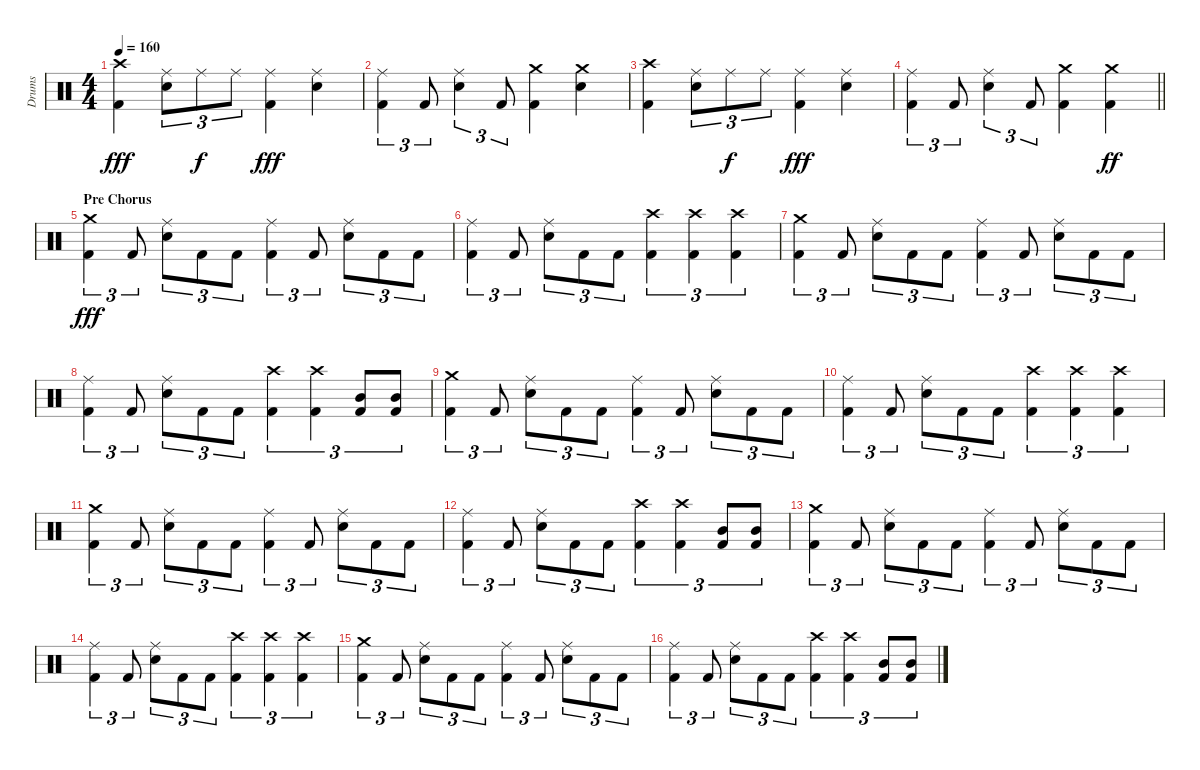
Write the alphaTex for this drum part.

\track ("Drums" "Drums") {instrument percussion}
\staff {score}
\articulation defaults
\ts (4 4)
\tempo 160
\clef neutral
\ks c
("Crash high (hit)" "Kick (hit) 2").4{dy fff} ("Ride (middle)" "Snare (hit) 2").8{tu (3 2)} "Ride (middle)".8{tu (3 2) dy f} "Ride (middle)".8{tu (3 2)} ("Ride (middle)" "Kick (hit) 2").4{dy fff} ("Ride (middle)" "Snare (hit) 2").4 |
("Ride (middle)" "Kick (hit) 2").4{tu (3 2)} "Kick (hit) 2".8{tu (3 2)} ("Ride (middle)" "Snare (hit) 2").4{tu (3 2)} "Kick (hit) 2".8{tu (3 2)} ("Crash medium (hit)" "Kick (hit) 2").4 ("Crash medium (hit)" "Snare (hit) 2").4 |
("Crash high (hit)" "Kick (hit) 2").4 ("Ride (middle)" "Snare (hit) 2").8{tu (3 2)} "Ride (middle)".8{tu (3 2) dy f} "Ride (middle)".8{tu (3 2)} ("Ride (middle)" "Kick (hit) 2").4{dy fff} ("Ride (middle)" "Snare (hit) 2").4 |
\barLineRight lightlight
("Ride (middle)" "Kick (hit) 2").4{tu (3 2)} "Kick (hit) 2".8{tu (3 2)} ("Ride (middle)" "Snare (hit) 2").4{tu (3 2)} "Kick (hit) 2".8{tu (3 2)} ("Crash medium (hit)" "Kick (hit) 2").4 ("Crash medium (hit)" "Kick (hit) 2").4{dy ff} |
\section ("" "Pre Chorus")
("Crash medium (hit)" "Kick (hit) 2").4{tu (3 2) dy fff} "Kick (hit) 2".8{tu (3 2)} ("Ride (middle)" "Snare (hit) 2").8{tu (3 2)} "Kick (hit) 2".8{tu (3 2)} "Kick (hit) 2".8{tu (3 2)} ("Ride (middle)" "Kick (hit) 2").4{tu (3 2)} "Kick (hit) 2".8{tu (3 2)} ("Ride (middle)" "Snare (hit) 2").8{tu (3 2)} "Kick (hit) 2".8{tu (3 2)} "Kick (hit) 2".8{tu (3 2)} |
("Ride (middle)" "Kick (hit) 2").4{tu (3 2)} "Kick (hit) 2".8{tu (3 2)} ("Ride (middle)" "Snare (hit) 2").8{tu (3 2)} "Kick (hit) 2".8{tu (3 2)} "Kick (hit) 2".8{tu (3 2)} ("Crash high (hit)" "Kick (hit) 2").4{tu (3 2)} ("Crash high (hit)" "Kick (hit) 2").4{tu (3 2)} ("Crash high (hit)" "Kick (hit) 2").4{tu (3 2)} |
("Crash medium (hit)" "Kick (hit) 2").4{tu (3 2)} "Kick (hit) 2".8{tu (3 2)} ("Ride (middle)" "Snare (hit) 2").8{tu (3 2)} "Kick (hit) 2".8{tu (3 2)} "Kick (hit) 2".8{tu (3 2)} ("Ride (middle)" "Kick (hit) 2").4{tu (3 2)} "Kick (hit) 2".8{tu (3 2)} ("Ride (middle)" "Snare (hit) 2").8{tu (3 2)} "Kick (hit) 2".8{tu (3 2)} "Kick (hit) 2".8{tu (3 2)} |
("Ride (middle)" "Kick (hit) 2").4{tu (3 2)} "Kick (hit) 2".8{tu (3 2)} ("Ride (middle)" "Snare (hit) 2").8{tu (3 2)} "Kick (hit) 2".8{tu (3 2)} "Kick (hit) 2".8{tu (3 2)} ("Crash high (hit)" "Kick (hit) 2").4{tu (3 2)} ("Crash high (hit)" "Kick (hit) 2").4{tu (3 2)} ("Mid Tom (hit)" "Kick (hit) 2").8{tu (3 2)} ("Mid Tom (hit)" "Kick (hit) 2").8{tu (3 2)} |
("Crash medium (hit)" "Kick (hit) 2").4{tu (3 2)} "Kick (hit) 2".8{tu (3 2)} ("Ride (middle)" "Snare (hit) 2").8{tu (3 2)} "Kick (hit) 2".8{tu (3 2)} "Kick (hit) 2".8{tu (3 2)} ("Ride (middle)" "Kick (hit) 2").4{tu (3 2)} "Kick (hit) 2".8{tu (3 2)} ("Ride (middle)" "Snare (hit) 2").8{tu (3 2)} "Kick (hit) 2".8{tu (3 2)} "Kick (hit) 2".8{tu (3 2)} |
("Ride (middle)" "Kick (hit) 2").4{tu (3 2)} "Kick (hit) 2".8{tu (3 2)} ("Ride (middle)" "Snare (hit) 2").8{tu (3 2)} "Kick (hit) 2".8{tu (3 2)} "Kick (hit) 2".8{tu (3 2)} ("Crash high (hit)" "Kick (hit) 2").4{tu (3 2)} ("Crash high (hit)" "Kick (hit) 2").4{tu (3 2)} ("Crash high (hit)" "Kick (hit) 2").4{tu (3 2)} |
("Crash medium (hit)" "Kick (hit) 2").4{tu (3 2)} "Kick (hit) 2".8{tu (3 2)} ("Ride (middle)" "Snare (hit) 2").8{tu (3 2)} "Kick (hit) 2".8{tu (3 2)} "Kick (hit) 2".8{tu (3 2)} ("Ride (middle)" "Kick (hit) 2").4{tu (3 2)} "Kick (hit) 2".8{tu (3 2)} ("Ride (middle)" "Snare (hit) 2").8{tu (3 2)} "Kick (hit) 2".8{tu (3 2)} "Kick (hit) 2".8{tu (3 2)} |
("Ride (middle)" "Kick (hit) 2").4{tu (3 2)} "Kick (hit) 2".8{tu (3 2)} ("Ride (middle)" "Snare (hit) 2").8{tu (3 2)} "Kick (hit) 2".8{tu (3 2)} "Kick (hit) 2".8{tu (3 2)} ("Crash high (hit)" "Kick (hit) 2").4{tu (3 2)} ("Crash high (hit)" "Kick (hit) 2").4{tu (3 2)} ("Mid Tom (hit)" "Kick (hit) 2").8{tu (3 2)} ("Mid Tom (hit)" "Kick (hit) 2").8{tu (3 2)} |
("Crash medium (hit)" "Kick (hit) 2").4{tu (3 2)} "Kick (hit) 2".8{tu (3 2)} ("Ride (middle)" "Snare (hit) 2").8{tu (3 2)} "Kick (hit) 2".8{tu (3 2)} "Kick (hit) 2".8{tu (3 2)} ("Ride (middle)" "Kick (hit) 2").4{tu (3 2)} "Kick (hit) 2".8{tu (3 2)} ("Ride (middle)" "Snare (hit) 2").8{tu (3 2)} "Kick (hit) 2".8{tu (3 2)} "Kick (hit) 2".8{tu (3 2)} |
("Ride (middle)" "Kick (hit) 2").4{tu (3 2)} "Kick (hit) 2".8{tu (3 2)} ("Ride (middle)" "Snare (hit) 2").8{tu (3 2)} "Kick (hit) 2".8{tu (3 2)} "Kick (hit) 2".8{tu (3 2)} ("Crash high (hit)" "Kick (hit) 2").4{tu (3 2)} ("Crash high (hit)" "Kick (hit) 2").4{tu (3 2)} ("Crash high (hit)" "Kick (hit) 2").4{tu (3 2)} |
("Crash medium (hit)" "Kick (hit) 2").4{tu (3 2)} "Kick (hit) 2".8{tu (3 2)} ("Ride (middle)" "Snare (hit) 2").8{tu (3 2)} "Kick (hit) 2".8{tu (3 2)} "Kick (hit) 2".8{tu (3 2)} ("Ride (middle)" "Kick (hit) 2").4{tu (3 2)} "Kick (hit) 2".8{tu (3 2)} ("Ride (middle)" "Snare (hit) 2").8{tu (3 2)} "Kick (hit) 2".8{tu (3 2)} "Kick (hit) 2".8{tu (3 2)} |
("Ride (middle)" "Kick (hit) 2").4{tu (3 2)} "Kick (hit) 2".8{tu (3 2)} ("Ride (middle)" "Snare (hit) 2").8{tu (3 2)} "Kick (hit) 2".8{tu (3 2)} "Kick (hit) 2".8{tu (3 2)} ("Crash high (hit)" "Kick (hit) 2").4{tu (3 2)} ("Crash high (hit)" "Kick (hit) 2").4{tu (3 2)} ("Mid Tom (hit)" "Kick (hit) 2").8{tu (3 2)} ("Mid Tom (hit)" "Kick (hit) 2").8{tu (3 2)}
